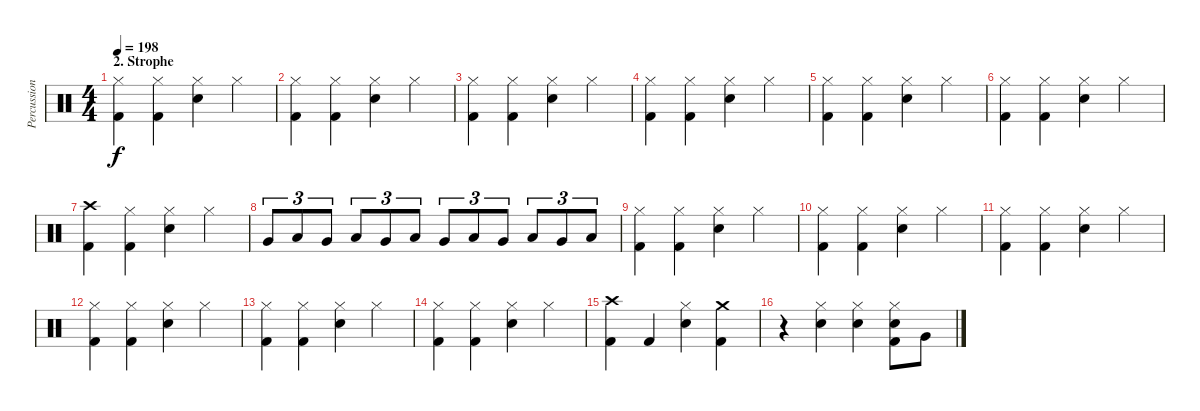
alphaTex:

\track ("Percussion" "Percussion") {instrument percussion}
\staff {score}
\articulation defaults
\ts (4 4)
\section ("" "2. Strophe")
\tempo 198
\clef neutral
\ks c
("Hi-Hat (closed)" "Kick (hit) 2").4{dy f} ("Hi-Hat (closed)" "Kick (hit) 2").4 ("Hi-Hat (closed)" "Electric Snare (hit)").4 "Hi-Hat (closed)".4 |
("Hi-Hat (closed)" "Kick (hit) 2").4 ("Hi-Hat (closed)" "Kick (hit) 2").4 ("Hi-Hat (closed)" "Electric Snare (hit)").4 "Hi-Hat (closed)".4 |
("Hi-Hat (closed)" "Kick (hit) 2").4 ("Hi-Hat (closed)" "Kick (hit) 2").4 ("Hi-Hat (closed)" "Electric Snare (hit)").4 "Hi-Hat (closed)".4 |
("Hi-Hat (closed)" "Kick (hit) 2").4 ("Hi-Hat (closed)" "Kick (hit) 2").4 ("Hi-Hat (closed)" "Electric Snare (hit)").4 "Hi-Hat (closed)".4 |
("Hi-Hat (closed)" "Kick (hit) 2").4 ("Hi-Hat (closed)" "Kick (hit) 2").4 ("Hi-Hat (closed)" "Electric Snare (hit)").4 "Hi-Hat (closed)".4 |
("Hi-Hat (closed)" "Kick (hit) 2").4 ("Hi-Hat (closed)" "Kick (hit) 2").4 ("Hi-Hat (closed)" "Electric Snare (hit)").4 "Hi-Hat (closed)".4 |
("Crash high (hit)" "Kick (hit) 2").4 ("Hi-Hat (closed)" "Kick (hit) 2").4 ("Hi-Hat (closed)" "Electric Snare (hit)").4 "Hi-Hat (closed)".4 |
"Very Low Tom (hit)".8{tu (3 2)} "Low Floor Tom (hit)".8{tu (3 2)} "Very Low Tom (hit)".8{tu (3 2)} "Low Tom (hit)".8{tu (3 2)} "Very Low Tom (hit)".8{tu (3 2)} "Low Tom (hit)".8{tu (3 2)} "Very Low Tom (hit)".8{tu (3 2)} "Low Floor Tom (hit)".8{tu (3 2)} "Very Low Tom (hit)".8{tu (3 2)} "Low Tom (hit)".8{tu (3 2)} "Very Low Tom (hit)".8{tu (3 2)} "Low Tom (hit)".8{tu (3 2)} |
("Hi-Hat (closed)" "Kick (hit) 2").4 ("Hi-Hat (closed)" "Kick (hit) 2").4 ("Hi-Hat (closed)" "Electric Snare (hit)").4 "Hi-Hat (closed)".4 |
("Hi-Hat (closed)" "Kick (hit) 2").4 ("Hi-Hat (closed)" "Kick (hit) 2").4 ("Hi-Hat (closed)" "Electric Snare (hit)").4 "Hi-Hat (closed)".4 |
("Hi-Hat (closed)" "Kick (hit) 2").4 ("Hi-Hat (closed)" "Kick (hit) 2").4 ("Hi-Hat (closed)" "Electric Snare (hit)").4 "Hi-Hat (closed)".4 |
("Hi-Hat (closed)" "Kick (hit) 2").4 ("Hi-Hat (closed)" "Kick (hit) 2").4 ("Hi-Hat (closed)" "Electric Snare (hit)").4 "Hi-Hat (closed)".4 |
("Hi-Hat (closed)" "Kick (hit) 2").4 ("Hi-Hat (closed)" "Kick (hit) 2").4 ("Hi-Hat (closed)" "Electric Snare (hit)").4 "Hi-Hat (closed)".4 |
("Hi-Hat (closed)" "Kick (hit) 2").4 ("Hi-Hat (closed)" "Kick (hit) 2").4 ("Hi-Hat (closed)" "Electric Snare (hit)").4 "Hi-Hat (closed)".4 |
("Crash high (hit)" "Kick (hit) 2").4 "Kick (hit) 2".4 ("Hi-Hat (closed)" "Electric Snare (hit)").4 ("Crash medium (hit)" "Kick (hit) 2").4 |
r.4 ("Hi-Hat (closed)" "Electric Snare (hit)").4 ("Hi-Hat (closed)" "Electric Snare (hit)").4 ("Hi-Hat (closed)" "Electric Snare (hit)" "Kick (hit) 2").8 "Very Low Tom (hit)".8
